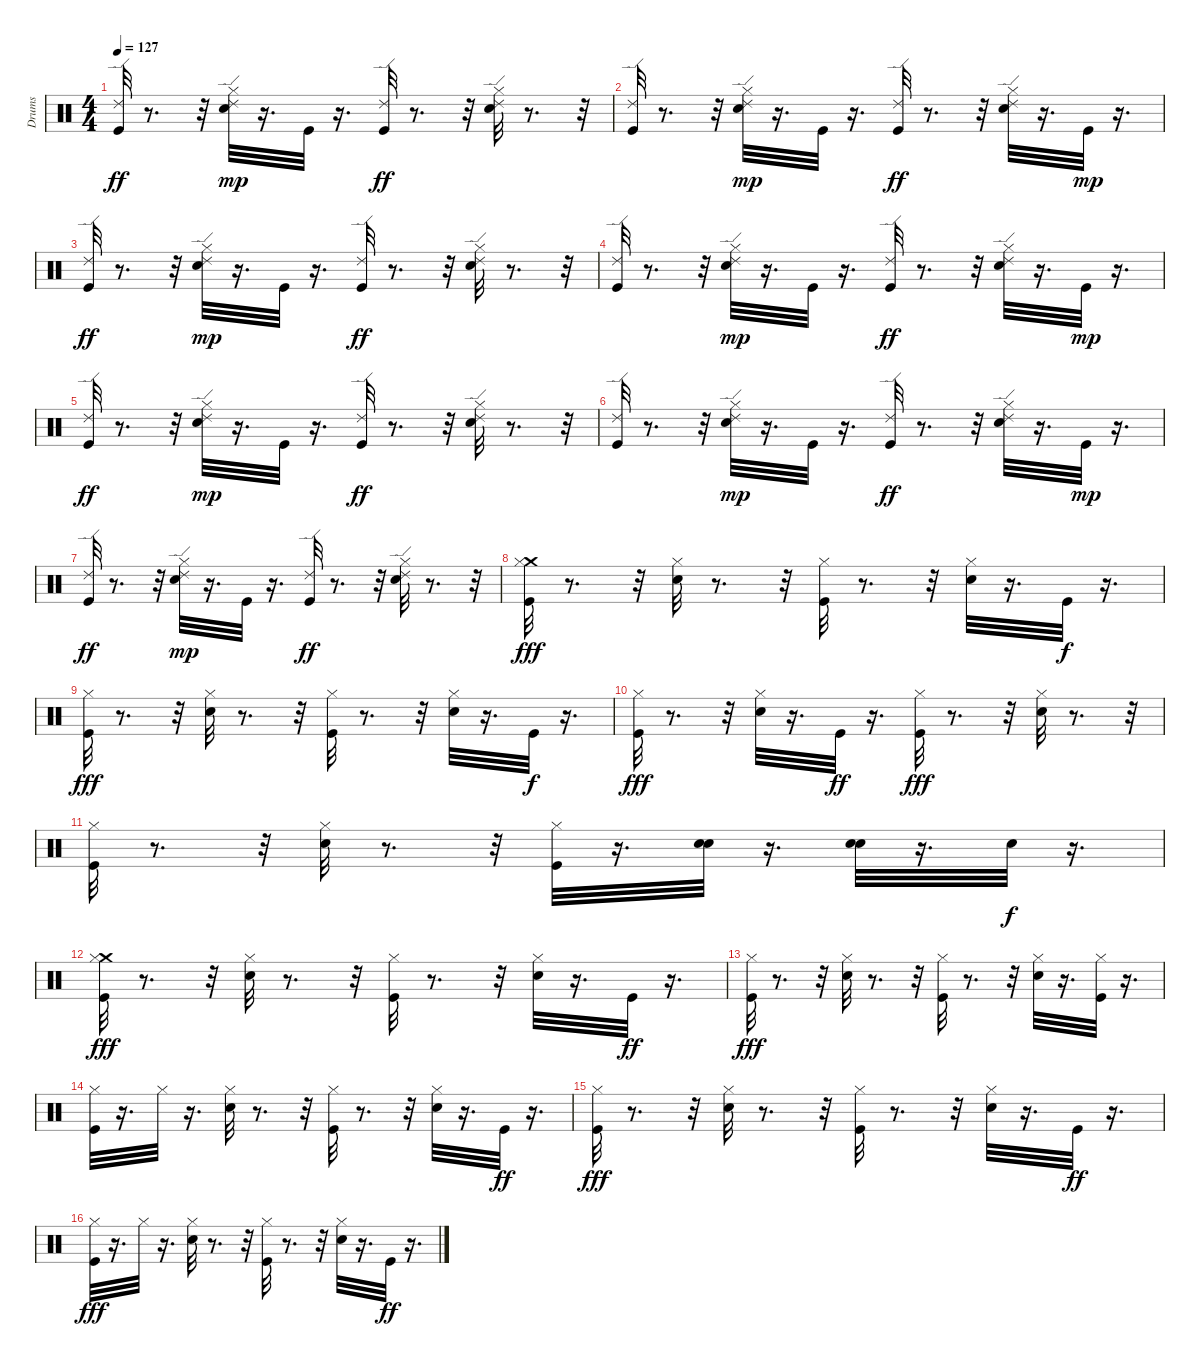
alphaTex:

\track (" Drums" " Drums") {instrument percussion}
\staff {score}
\articulation defaults
\ts (4 4)
\tempo 127
\clef neutral
\ks c
("Kick (hit)" "Ride (edge) 2").32{dy ff} r.8{d} r.32 ("Electric Snare (hit)" "Hi-Hat (closed)" "Ride (edge) 2").32{dy mp} r.16{d} "Kick (hit)".32 r.16{d} ("Kick (hit)" "Ride (edge) 2").32{dy ff} r.8{d} r.32 ("Electric Snare (hit)" "Hi-Hat (closed)" "Ride (edge) 2").32 r.8{d} r.32 |
("Kick (hit)" "Ride (edge) 2").32 r.8{d} r.32 ("Electric Snare (hit)" "Hi-Hat (closed)" "Ride (edge) 2").32{dy mp} r.16{d} "Kick (hit)".32 r.16{d} ("Kick (hit)" "Ride (edge) 2").32{dy ff} r.8{d} r.32 ("Electric Snare (hit)" "Hi-Hat (closed)" "Ride (edge) 2").32 r.16{d} "Kick (hit)".32{dy mp} r.16{d} |
("Kick (hit)" "Ride (edge) 2").32{dy ff} r.8{d} r.32 ("Electric Snare (hit)" "Hi-Hat (closed)" "Ride (edge) 2").32{dy mp} r.16{d} "Kick (hit)".32 r.16{d} ("Kick (hit)" "Ride (edge) 2").32{dy ff} r.8{d} r.32 ("Electric Snare (hit)" "Hi-Hat (closed)" "Ride (edge) 2").32 r.8{d} r.32 |
("Kick (hit)" "Ride (edge) 2").32 r.8{d} r.32 ("Electric Snare (hit)" "Hi-Hat (closed)" "Ride (edge) 2").32{dy mp} r.16{d} "Kick (hit)".32 r.16{d} ("Kick (hit)" "Ride (edge) 2").32{dy ff} r.8{d} r.32 ("Electric Snare (hit)" "Hi-Hat (closed)" "Ride (edge) 2").32 r.16{d} "Kick (hit)".32{dy mp} r.16{d} |
("Kick (hit)" "Ride (edge) 2").32{dy ff} r.8{d} r.32 ("Electric Snare (hit)" "Hi-Hat (closed)" "Ride (edge) 2").32{dy mp} r.16{d} "Kick (hit)".32 r.16{d} ("Kick (hit)" "Ride (edge) 2").32{dy ff} r.8{d} r.32 ("Electric Snare (hit)" "Hi-Hat (closed)" "Ride (edge) 2").32 r.8{d} r.32 |
("Kick (hit)" "Ride (edge) 2").32 r.8{d} r.32 ("Electric Snare (hit)" "Hi-Hat (closed)" "Ride (edge) 2").32{dy mp} r.16{d} "Kick (hit)".32 r.16{d} ("Kick (hit)" "Ride (edge) 2").32{dy ff} r.8{d} r.32 ("Electric Snare (hit)" "Hi-Hat (closed)" "Ride (edge) 2").32 r.16{d} "Kick (hit)".32{dy mp} r.16{d} |
("Kick (hit)" "Ride (edge) 2").32{dy ff} r.8{d} r.32 ("Electric Snare (hit)" "Hi-Hat (closed)" "Ride (edge) 2").32{dy mp} r.16{d} "Kick (hit)".32 r.16{d} ("Kick (hit)" "Ride (edge) 2").32{dy ff} r.8{d} r.32 ("Electric Snare (hit)" "Hi-Hat (closed)" "Ride (edge) 2").32 r.8{d} r.32 |
("Crash medium (hit)" "Kick (hit)" "Hi-Hat (closed)").32{dy fff} r.8{d} r.32 ("Electric Snare (hit)" "Hi-Hat (closed)").32 r.8{d} r.32 ("Kick (hit)" "Hi-Hat (closed)").32 r.8{d} r.32 ("Electric Snare (hit)" "Hi-Hat (closed)").32 r.16{d} "Kick (hit)".32{dy f} r.16{d} |
("Kick (hit)" "Hi-Hat (closed)").32{dy fff} r.8{d} r.32 ("Electric Snare (hit)" "Hi-Hat (closed)").32 r.8{d} r.32 ("Kick (hit)" "Hi-Hat (closed)").32 r.8{d} r.32 ("Electric Snare (hit)" "Hi-Hat (closed)").32 r.16{d} "Kick (hit)".32{dy f} r.16{d} |
("Kick (hit)" "Hi-Hat (closed)").32{dy fff} r.8{d} r.32 ("Electric Snare (hit)" "Hi-Hat (closed)").32 r.16{d} "Kick (hit)".32{dy ff} r.16{d} ("Kick (hit)" "Hi-Hat (closed)").32{dy fff} r.8{d} r.32 ("Hi-Hat (closed)" "Electric Snare (hit)").32 r.8{d} r.32 |
("Kick (hit)" "Hi-Hat (closed)").32 r.8{d} r.32 ("Hi-Hat (closed)" "Electric Snare (hit)").32 r.8{d} r.32 ("Kick (hit)" "Hi-Hat (closed)").32 r.16{d} ("Electric Snare (hit)" "Snare (hit) 2").32 r.16{d} ("Electric Snare (hit)" "Snare (hit) 2").32 r.16{d} "Snare (hit) 2".32{dy f} r.16{d} |
("Crash medium (hit)" "Kick (hit)" "Hi-Hat (closed)").32{dy fff} r.8{d} r.32 ("Electric Snare (hit)" "Hi-Hat (closed)").32 r.8{d} r.32 ("Kick (hit)" "Hi-Hat (closed)").32 r.8{d} r.32 ("Electric Snare (hit)" "Hi-Hat (closed)").32 r.16{d} "Kick (hit)".32{dy ff} r.16{d} |
("Kick (hit)" "Hi-Hat (closed)").32{dy fff} r.8{d} r.32 ("Electric Snare (hit)" "Hi-Hat (closed)").32 r.8{d} r.32 ("Kick (hit)" "Hi-Hat (closed)").32 r.8{d} r.32 ("Electric Snare (hit)" "Hi-Hat (closed)").32 r.16{d} ("Kick (hit)" "Hi-Hat (closed)").32 r.16{d} |
("Kick (hit)" "Hi-Hat (closed)").32 r.16{d} "Hi-Hat (closed)".32 r.16{d} ("Electric Snare (hit)" "Hi-Hat (closed)").32 r.8{d} r.32 ("Kick (hit)" "Hi-Hat (closed)").32 r.8{d} r.32 ("Electric Snare (hit)" "Hi-Hat (closed)").32 r.16{d} "Kick (hit)".32{dy ff} r.16{d} |
("Hi-Hat (closed)" "Kick (hit)").32{dy fff} r.8{d} r.32 ("Electric Snare (hit)" "Hi-Hat (closed)").32 r.8{d} r.32 ("Kick (hit)" "Hi-Hat (closed)").32 r.8{d} r.32 ("Electric Snare (hit)" "Hi-Hat (closed)").32 r.16{d} "Kick (hit)".32{dy ff} r.16{d} |
("Kick (hit)" "Hi-Hat (closed)").32{dy fff} r.16{d} "Hi-Hat (closed)".32 r.16{d} ("Electric Snare (hit)" "Hi-Hat (closed)").32 r.8{d} r.32 ("Kick (hit)" "Hi-Hat (closed)").32 r.8{d} r.32 ("Electric Snare (hit)" "Hi-Hat (closed)").32 r.16{d} "Kick (hit)".32{dy ff} r.16{d}
